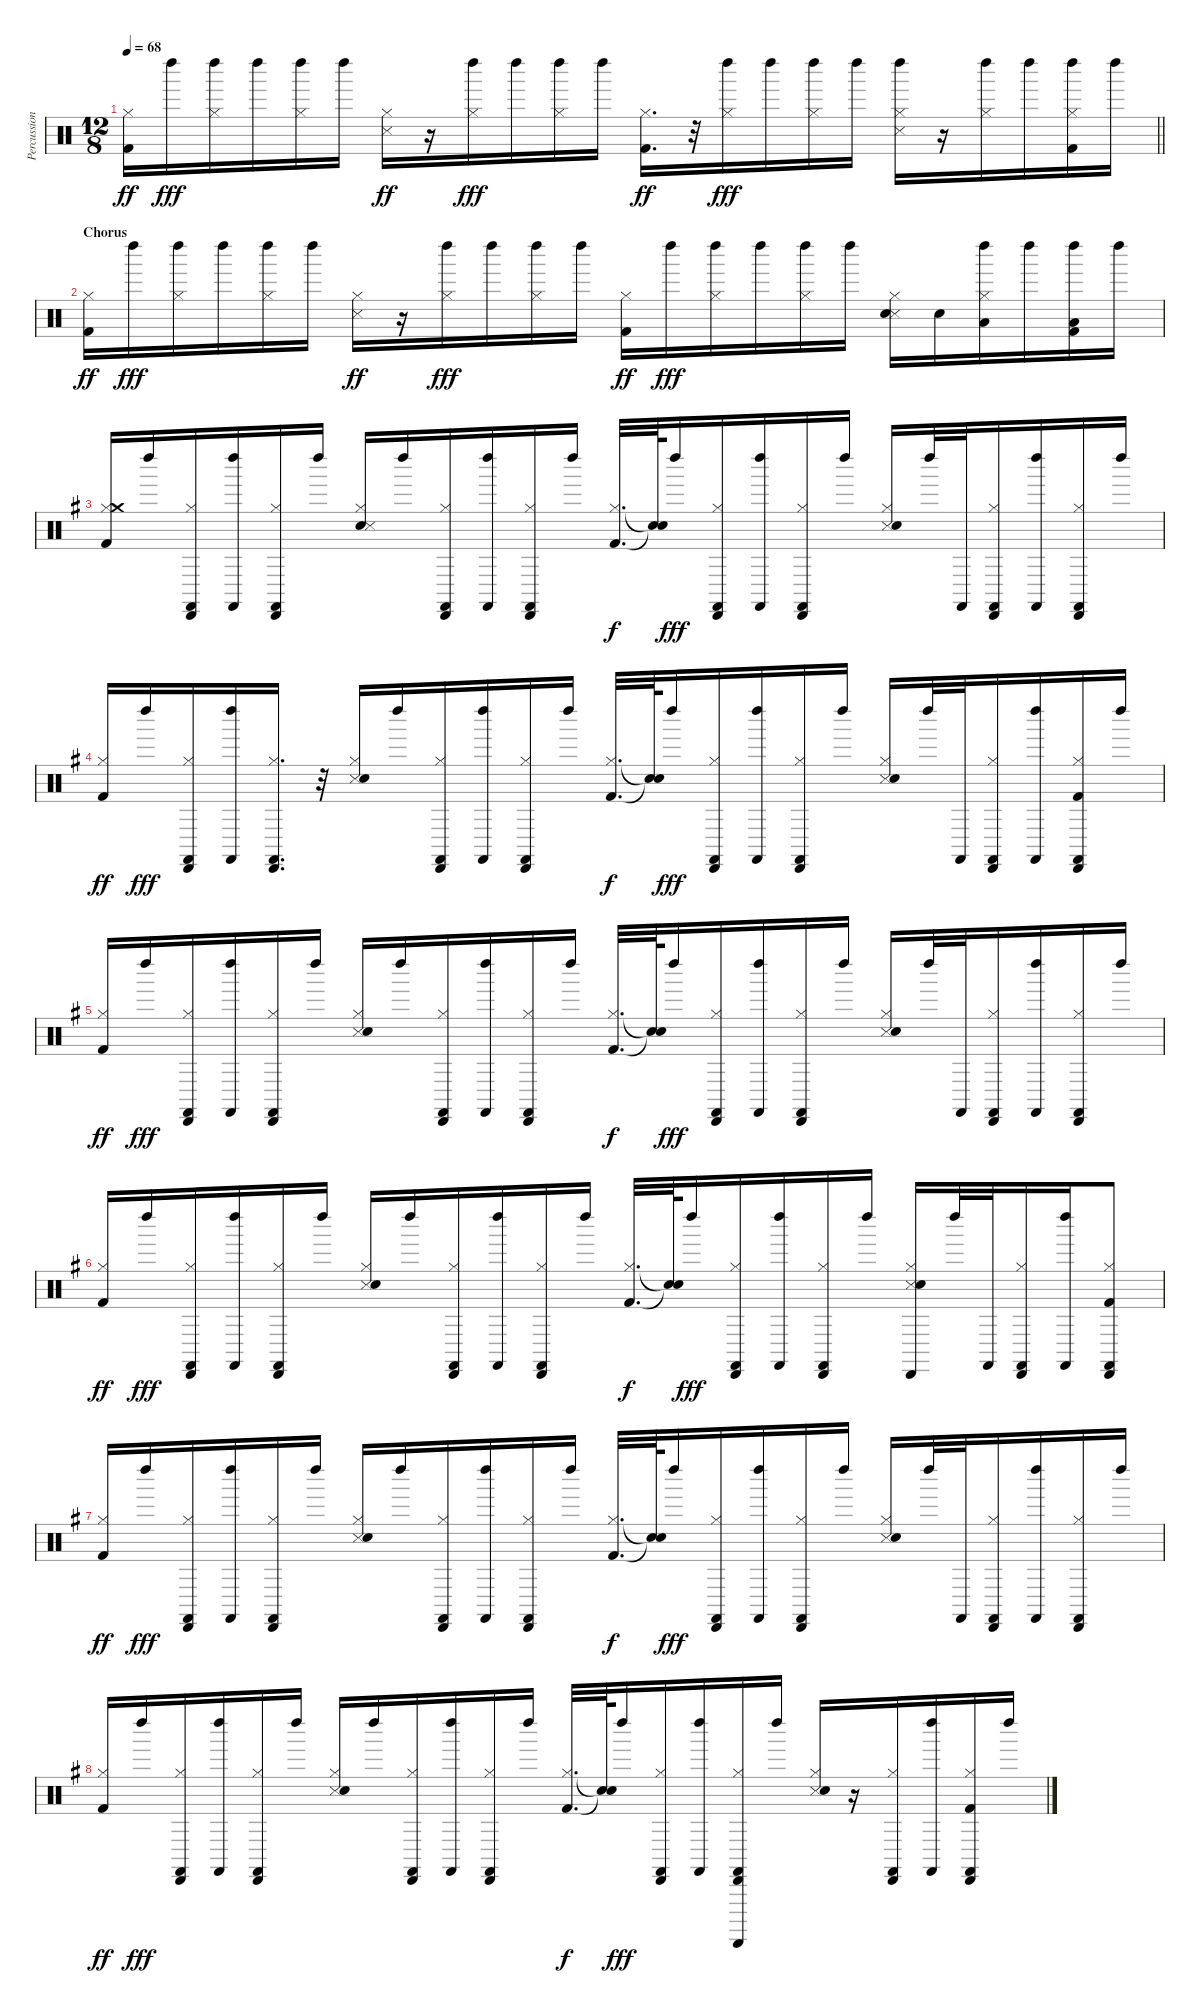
\track ("Percussion" "Percussion") {instrument percussion}
\staff {score}
\articulation defaults
\ts (12 8)
\tempo 68
\clef neutral
\barLineRight lightlight
\ks c
("Kick (hit) 2" "Hi-Hat (closed)").16{dy ff} "Left Maraca (hit)".16{dy fff} ("Hi-Hat (closed)" "Left Maraca (hit)").16 "Left Maraca (hit)".16 ("Hi-Hat (closed)" "Left Maraca (hit)").16 "Left Maraca (hit)".16 ("Snare (side stick) 3" "Hi-Hat (closed)").16{dy ff} r.16 ("Hi-Hat (closed)" "Left Maraca (hit)").16{dy fff} "Left Maraca (hit)".16 ("Hi-Hat (closed)" "Left Maraca (hit)").16 "Left Maraca (hit)".16 ("Kick (hit) 2" "Hi-Hat (closed)").16{d dy ff} r.32 ("Hi-Hat (closed)" "Left Maraca (hit)").16{dy fff} "Left Maraca (hit)".16 ("Hi-Hat (closed)" "Left Maraca (hit)").16 "Left Maraca (hit)".16 ("Snare (side stick) 3" "Hi-Hat (closed)" "Left Maraca (hit)").16 r.16 ("Hi-Hat (closed)" "Left Maraca (hit)").16 "Left Maraca (hit)".16 ("Kick (hit) 2" "Hi-Hat (closed)" "Left Maraca (hit)").16 "Left Maraca (hit)".16 |
\section ("" "Chorus")
("Kick (hit) 2" "Hi-Hat (closed)").16{dy ff} "Left Maraca (hit)".16{dy fff} ("Hi-Hat (closed)" "Left Maraca (hit)").16 "Left Maraca (hit)".16 ("Hi-Hat (closed)" "Left Maraca (hit)").16 "Left Maraca (hit)".16 ("Snare (side stick) 3" "Hi-Hat (closed)").16{dy ff} r.16 ("Hi-Hat (closed)" "Left Maraca (hit)").16{dy fff} "Left Maraca (hit)".16 ("Hi-Hat (closed)" "Left Maraca (hit)").16 "Left Maraca (hit)".16 ("Kick (hit) 2" "Hi-Hat (closed)").16{dy ff} "Left Maraca (hit)".16{dy fff} ("Hi-Hat (closed)" "Left Maraca (hit)").16 "Left Maraca (hit)".16 ("Hi-Hat (closed)" "Left Maraca (hit)").16 "Left Maraca (hit)".16 ("Snare (side stick) 3" "Hi-Hat (closed)" "Snare (hit) 2").16 "Snare (hit) 2".16 ("Hi-Hat (closed)" "Low Tom (hit)" "Left Maraca (hit)").16 "Left Maraca (hit)".16 ("Low Floor Tom (hit)" "Left Maraca (hit)" "Kick (hit) 2").16 "Left Maraca (hit)".16 |
\ks g
("Kick (hit) 2" "Hi-Hat (closed)" "Crash medium (hit)").16 "Left Maraca (hit)".16 ("Hi-Hat (closed)" "Cabasa (hit)" "Castanets (hit)").16 ("Left Maraca (hit)" "Castanets (hit)").16 ("Hi-Hat (closed)" "Cabasa (hit)" "Castanets (hit)").16 "Left Maraca (hit)".16 ("Hi-Hat (closed)" "Snare (hit) 2" "Snare (side stick) 3").16 "Left Maraca (hit)".16 ("Hi-Hat (closed)" "Cabasa (hit)" "Castanets (hit)").16 ("Left Maraca (hit)" "Castanets (hit)").16 ("Hi-Hat (closed)" "Cabasa (hit)" "Castanets (hit)").16 "Left Maraca (hit)".16 ("Kick (hit) 2" "Hi-Hat (closed)").32{d dy f} ("Snare (hit)"{t} "Snare (hit)"{t}).64 "Left Maraca (hit)".16{dy fff} ("Hi-Hat (closed)" "Cabasa (hit)" "Castanets (hit)").16 ("Left Maraca (hit)" "Castanets (hit)").16 ("Hi-Hat (closed)" "Cabasa (hit)" "Castanets (hit)").16 "Left Maraca (hit)".16 ("Snare (side stick) 3" "Hi-Hat (closed)" "Snare (hit) 2").16 "Left Maraca (hit)".32 "Castanets (hit)".32 ("Hi-Hat (closed)" "Cabasa (hit)" "Castanets (hit)").16 ("Left Maraca (hit)" "Castanets (hit)").16 ("Hi-Hat (closed)" "Cabasa (hit)" "Castanets (hit)").16 "Left Maraca (hit)".16 |
("Kick (hit) 2" "Hi-Hat (closed)").16{dy ff} "Left Maraca (hit)".16{dy fff} ("Hi-Hat (closed)" "Cabasa (hit)" "Castanets (hit)").16 ("Left Maraca (hit)" "Castanets (hit)").16 ("Hi-Hat (closed)" "Cabasa (hit)" "Castanets (hit)").16{d} r.32 ("Snare (side stick) 3" "Hi-Hat (closed)" "Snare (hit) 2").16 "Left Maraca (hit)".16 ("Hi-Hat (closed)" "Cabasa (hit)" "Castanets (hit)").16 ("Left Maraca (hit)" "Castanets (hit)").16 ("Hi-Hat (closed)" "Cabasa (hit)" "Castanets (hit)").16 "Left Maraca (hit)".16 ("Kick (hit) 2" "Hi-Hat (closed)").32{d dy f} ("Snare (hit)"{t} "Snare (hit)"{t}).64 "Left Maraca (hit)".16{dy fff} ("Hi-Hat (closed)" "Cabasa (hit)" "Castanets (hit)").16 ("Left Maraca (hit)" "Castanets (hit)").16 ("Hi-Hat (closed)" "Cabasa (hit)" "Castanets (hit)").16 "Left Maraca (hit)".16 ("Snare (side stick) 3" "Hi-Hat (closed)" "Snare (hit) 2").16 "Left Maraca (hit)".32 "Castanets (hit)".32 ("Hi-Hat (closed)" "Cabasa (hit)" "Castanets (hit)").16 ("Left Maraca (hit)" "Castanets (hit)").16 ("Kick (hit) 2" "Hi-Hat (closed)" "Cabasa (hit)" "Castanets (hit)").16 "Left Maraca (hit)".16 |
("Kick (hit) 2" "Hi-Hat (closed)").16{dy ff} "Left Maraca (hit)".16{dy fff} ("Hi-Hat (closed)" "Cabasa (hit)" "Castanets (hit)").16 ("Left Maraca (hit)" "Castanets (hit)").16 ("Hi-Hat (closed)" "Cabasa (hit)" "Castanets (hit)").16 "Left Maraca (hit)".16 ("Snare (side stick) 3" "Hi-Hat (closed)" "Snare (hit) 2").16 "Left Maraca (hit)".16 ("Hi-Hat (closed)" "Cabasa (hit)" "Castanets (hit)").16 ("Left Maraca (hit)" "Castanets (hit)").16 ("Hi-Hat (closed)" "Cabasa (hit)" "Castanets (hit)").16 "Left Maraca (hit)".16 ("Kick (hit) 2" "Hi-Hat (closed)").32{d dy f} ("Snare (hit)"{t} "Snare (hit)"{t}).64 "Left Maraca (hit)".16{dy fff} ("Hi-Hat (closed)" "Cabasa (hit)" "Castanets (hit)").16 ("Left Maraca (hit)" "Castanets (hit)").16 ("Hi-Hat (closed)" "Cabasa (hit)" "Castanets (hit)").16 "Left Maraca (hit)".16 ("Snare (side stick) 3" "Hi-Hat (closed)" "Snare (hit) 2").16 "Left Maraca (hit)".32 "Castanets (hit)".32 ("Hi-Hat (closed)" "Cabasa (hit)" "Castanets (hit)").16 ("Left Maraca (hit)" "Castanets (hit)").16 ("Hi-Hat (closed)" "Cabasa (hit)" "Castanets (hit)").16 "Left Maraca (hit)".16 |
("Kick (hit) 2" "Hi-Hat (closed)").16{dy ff} "Left Maraca (hit)".16{dy fff} ("Hi-Hat (closed)" "Cabasa (hit)" "Castanets (hit)").16 ("Left Maraca (hit)" "Castanets (hit)").16 ("Hi-Hat (closed)" "Cabasa (hit)" "Castanets (hit)").16 "Left Maraca (hit)".16 ("Snare (side stick) 3" "Hi-Hat (closed)" "Snare (hit) 2").16 "Left Maraca (hit)".16 ("Hi-Hat (closed)" "Cabasa (hit)" "Castanets (hit)").16 ("Left Maraca (hit)" "Castanets (hit)").16 ("Hi-Hat (closed)" "Cabasa (hit)" "Castanets (hit)").16 "Left Maraca (hit)".16 ("Kick (hit) 2" "Hi-Hat (closed)").32{d dy f} ("Snare (hit)"{t} "Snare (hit)"{t}).64 "Left Maraca (hit)".16{dy fff} ("Hi-Hat (closed)" "Cabasa (hit)" "Castanets (hit)").16 ("Left Maraca (hit)" "Castanets (hit)").16 ("Hi-Hat (closed)" "Cabasa (hit)" "Castanets (hit)").16 "Left Maraca (hit)".16 ("Snare (side stick) 3" "Hi-Hat (closed)" "Cabasa (hit)" "Snare (hit) 2").16 "Left Maraca (hit)".32 "Castanets (hit)".32 ("Hi-Hat (closed)" "Cabasa (hit)" "Castanets (hit)").16 ("Left Maraca (hit)" "Castanets (hit)").16 ("Kick (hit) 2" "Hi-Hat (closed)" "Cabasa (hit)" "Castanets (hit)").8 |
("Kick (hit) 2" "Hi-Hat (closed)").16{dy ff} "Left Maraca (hit)".16{dy fff} ("Hi-Hat (closed)" "Cabasa (hit)" "Castanets (hit)").16 ("Left Maraca (hit)" "Castanets (hit)").16 ("Hi-Hat (closed)" "Cabasa (hit)" "Castanets (hit)").16 "Left Maraca (hit)".16 ("Snare (side stick) 3" "Hi-Hat (closed)" "Snare (hit) 2").16 "Left Maraca (hit)".16 ("Hi-Hat (closed)" "Cabasa (hit)" "Castanets (hit)").16 ("Left Maraca (hit)" "Castanets (hit)").16 ("Hi-Hat (closed)" "Cabasa (hit)" "Castanets (hit)").16 "Left Maraca (hit)".16 ("Kick (hit) 2" "Hi-Hat (closed)").32{d dy f} ("Snare (hit)"{t} "Snare (hit)"{t}).64 "Left Maraca (hit)".16{dy fff} ("Hi-Hat (closed)" "Cabasa (hit)" "Castanets (hit)").16 ("Left Maraca (hit)" "Castanets (hit)").16 ("Hi-Hat (closed)" "Cabasa (hit)" "Castanets (hit)").16 "Left Maraca (hit)".16 ("Snare (side stick) 3" "Hi-Hat (closed)" "Snare (hit) 2").16 "Left Maraca (hit)".32 "Castanets (hit)".32 ("Hi-Hat (closed)" "Cabasa (hit)" "Castanets (hit)").16 ("Left Maraca (hit)" "Castanets (hit)").16 ("Hi-Hat (closed)" "Cabasa (hit)" "Castanets (hit)").16 "Left Maraca (hit)".16 |
("Kick (hit) 2" "Hi-Hat (closed)").16{dy ff} "Left Maraca (hit)".16{dy fff} ("Hi-Hat (closed)" "Cabasa (hit)" "Castanets (hit)").16 ("Left Maraca (hit)" "Castanets (hit)").16 ("Hi-Hat (closed)" "Cabasa (hit)" "Castanets (hit)").16 "Left Maraca (hit)".16 ("Snare (side stick) 3" "Hi-Hat (closed)" "Snare (hit) 2").16 "Left Maraca (hit)".16 ("Hi-Hat (closed)" "Cabasa (hit)" "Castanets (hit)").16 ("Left Maraca (hit)" "Castanets (hit)").16 ("Hi-Hat (closed)" "Cabasa (hit)" "Castanets (hit)").16 "Left Maraca (hit)".16 ("Kick (hit) 2" "Hi-Hat (closed)").32{d dy f} ("Snare (hit)"{t} "Snare (hit)"{t}).64 "Left Maraca (hit)".16{dy fff} ("Hi-Hat (closed)" "Cabasa (hit)" "Castanets (hit)").16 ("Left Maraca (hit)" "Castanets (hit)").16 ("Hi-Hat (closed)" "Guiro (scrap-return)" "Cabasa (hit)" "Castanets (hit)").16 "Left Maraca (hit)".16 ("Snare (side stick) 3" "Hi-Hat (closed)" "Snare (hit) 2").16 r.16 ("Hi-Hat (closed)" "Cabasa (hit)" "Castanets (hit)").16 ("Left Maraca (hit)" "Castanets (hit)").16 ("Kick (hit) 2" "Hi-Hat (closed)" "Cabasa (hit)" "Castanets (hit)").16 "Left Maraca (hit)".16
